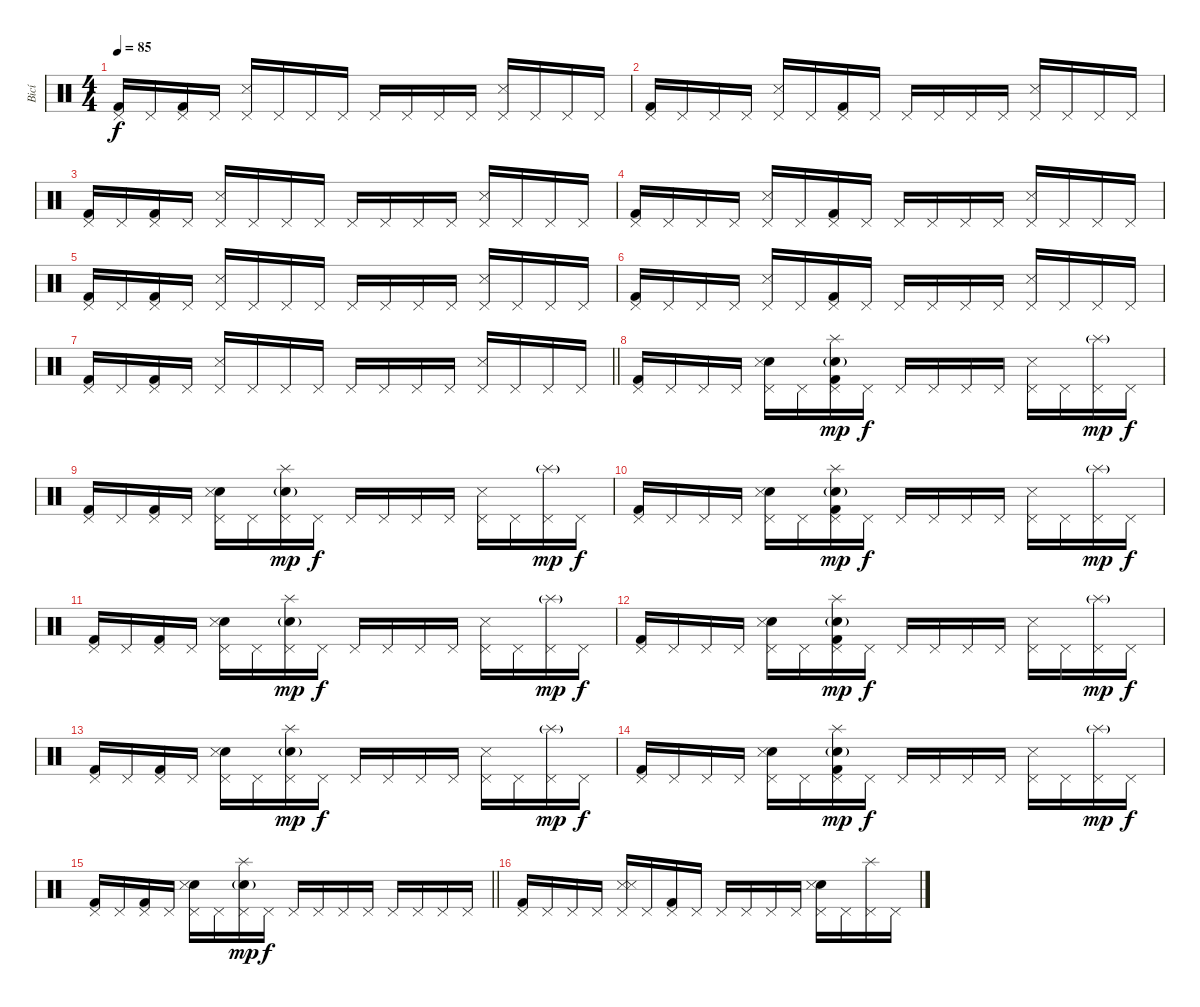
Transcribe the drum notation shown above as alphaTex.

\track ("Bicí" "Bicí") {instrument percussion}
\staff {score}
\articulation defaults
\ts (4 4)
\tempo 85
\clef neutral
\ks c
("Pedal Hi-Hat (hit)" "Kick (hit) 2").16{dy f} "Pedal Hi-Hat (hit)".16 ("Pedal Hi-Hat (hit)" "Kick (hit) 2").16 "Pedal Hi-Hat (hit)".16 ("Pedal Hi-Hat (hit)" "Snare (side stick) 3").16 "Pedal Hi-Hat (hit)".16 "Pedal Hi-Hat (hit)".16 "Pedal Hi-Hat (hit)".16 "Pedal Hi-Hat (hit)".16 "Pedal Hi-Hat (hit)".16 "Pedal Hi-Hat (hit)".16 "Pedal Hi-Hat (hit)".16 ("Pedal Hi-Hat (hit)" "Snare (side stick) 3").16 "Pedal Hi-Hat (hit)".16 "Pedal Hi-Hat (hit)".16 "Pedal Hi-Hat (hit)".16 |
("Pedal Hi-Hat (hit)" "Kick (hit) 2").16 "Pedal Hi-Hat (hit)".16 "Pedal Hi-Hat (hit)".16 "Pedal Hi-Hat (hit)".16 ("Pedal Hi-Hat (hit)" "Snare (side stick) 3").16 "Pedal Hi-Hat (hit)".16 ("Pedal Hi-Hat (hit)" "Kick (hit) 2").16 "Pedal Hi-Hat (hit)".16 "Pedal Hi-Hat (hit)".16 "Pedal Hi-Hat (hit)".16 "Pedal Hi-Hat (hit)".16 "Pedal Hi-Hat (hit)".16 ("Pedal Hi-Hat (hit)" "Snare (side stick) 3").16 "Pedal Hi-Hat (hit)".16 "Pedal Hi-Hat (hit)".16 "Pedal Hi-Hat (hit)".16 |
("Pedal Hi-Hat (hit)" "Kick (hit) 2").16 "Pedal Hi-Hat (hit)".16 ("Pedal Hi-Hat (hit)" "Kick (hit) 2").16 "Pedal Hi-Hat (hit)".16 ("Pedal Hi-Hat (hit)" "Snare (side stick) 3").16 "Pedal Hi-Hat (hit)".16 "Pedal Hi-Hat (hit)".16 "Pedal Hi-Hat (hit)".16 "Pedal Hi-Hat (hit)".16 "Pedal Hi-Hat (hit)".16 "Pedal Hi-Hat (hit)".16 "Pedal Hi-Hat (hit)".16 ("Pedal Hi-Hat (hit)" "Snare (side stick) 3").16 "Pedal Hi-Hat (hit)".16 "Pedal Hi-Hat (hit)".16 "Pedal Hi-Hat (hit)".16 |
("Pedal Hi-Hat (hit)" "Kick (hit) 2").16 "Pedal Hi-Hat (hit)".16 "Pedal Hi-Hat (hit)".16 "Pedal Hi-Hat (hit)".16 ("Pedal Hi-Hat (hit)" "Snare (side stick) 3").16 "Pedal Hi-Hat (hit)".16 ("Pedal Hi-Hat (hit)" "Kick (hit) 2").16 "Pedal Hi-Hat (hit)".16 "Pedal Hi-Hat (hit)".16 "Pedal Hi-Hat (hit)".16 "Pedal Hi-Hat (hit)".16 "Pedal Hi-Hat (hit)".16 ("Pedal Hi-Hat (hit)" "Snare (side stick) 3").16 "Pedal Hi-Hat (hit)".16 "Pedal Hi-Hat (hit)".16 "Pedal Hi-Hat (hit)".16 |
("Pedal Hi-Hat (hit)" "Kick (hit) 2").16 "Pedal Hi-Hat (hit)".16 ("Pedal Hi-Hat (hit)" "Kick (hit) 2").16 "Pedal Hi-Hat (hit)".16 ("Pedal Hi-Hat (hit)" "Snare (side stick) 3").16 "Pedal Hi-Hat (hit)".16 "Pedal Hi-Hat (hit)".16 "Pedal Hi-Hat (hit)".16 "Pedal Hi-Hat (hit)".16 "Pedal Hi-Hat (hit)".16 "Pedal Hi-Hat (hit)".16 "Pedal Hi-Hat (hit)".16 ("Pedal Hi-Hat (hit)" "Snare (side stick) 3").16 "Pedal Hi-Hat (hit)".16 "Pedal Hi-Hat (hit)".16 "Pedal Hi-Hat (hit)".16 |
("Pedal Hi-Hat (hit)" "Kick (hit) 2").16 "Pedal Hi-Hat (hit)".16 "Pedal Hi-Hat (hit)".16 "Pedal Hi-Hat (hit)".16 ("Pedal Hi-Hat (hit)" "Snare (side stick) 3").16 "Pedal Hi-Hat (hit)".16 ("Pedal Hi-Hat (hit)" "Kick (hit) 2").16 "Pedal Hi-Hat (hit)".16 "Pedal Hi-Hat (hit)".16 "Pedal Hi-Hat (hit)".16 "Pedal Hi-Hat (hit)".16 "Pedal Hi-Hat (hit)".16 ("Pedal Hi-Hat (hit)" "Snare (side stick) 3").16 "Pedal Hi-Hat (hit)".16 "Pedal Hi-Hat (hit)".16 "Pedal Hi-Hat (hit)".16 |
\barLineRight lightlight
("Pedal Hi-Hat (hit)" "Kick (hit) 2").16 "Pedal Hi-Hat (hit)".16 ("Pedal Hi-Hat (hit)" "Kick (hit) 2").16 "Pedal Hi-Hat (hit)".16 ("Pedal Hi-Hat (hit)" "Snare (side stick) 3").16 "Pedal Hi-Hat (hit)".16 "Pedal Hi-Hat (hit)".16 "Pedal Hi-Hat (hit)".16 "Pedal Hi-Hat (hit)".16 "Pedal Hi-Hat (hit)".16 "Pedal Hi-Hat (hit)".16 "Pedal Hi-Hat (hit)".16 ("Pedal Hi-Hat (hit)" "Snare (side stick) 3").16 "Pedal Hi-Hat (hit)".16 "Pedal Hi-Hat (hit)".16 "Pedal Hi-Hat (hit)".16 |
("Pedal Hi-Hat (hit)" "Kick (hit) 2").16 "Pedal Hi-Hat (hit)".16 "Pedal Hi-Hat (hit)".16 "Pedal Hi-Hat (hit)".16 ("Pedal Hi-Hat (hit)" "Hand Clap (hit)" "Snare (side stick) 3").16 "Pedal Hi-Hat (hit)".16 ("Pedal Hi-Hat (hit)" "Splash (hit)" "Hand Clap (hit)"{g} "Kick (hit) 2").16{dy mp} "Pedal Hi-Hat (hit)".16{dy f} "Pedal Hi-Hat (hit)".16 "Pedal Hi-Hat (hit)".16 "Pedal Hi-Hat (hit)".16 "Pedal Hi-Hat (hit)".16 ("Pedal Hi-Hat (hit)" "Snare (side stick) 3").16 "Pedal Hi-Hat (hit)".16 ("Pedal Hi-Hat (hit)" "Splash (hit)"{g}).16{dy mp} "Pedal Hi-Hat (hit)".16{dy f} |
("Pedal Hi-Hat (hit)" "Kick (hit) 2").16 "Pedal Hi-Hat (hit)".16 ("Pedal Hi-Hat (hit)" "Kick (hit) 2").16 "Pedal Hi-Hat (hit)".16 ("Pedal Hi-Hat (hit)" "Hand Clap (hit)" "Snare (side stick) 3").16 "Pedal Hi-Hat (hit)".16 ("Pedal Hi-Hat (hit)" "Splash (hit)" "Hand Clap (hit)"{g}).16{dy mp} "Pedal Hi-Hat (hit)".16{dy f} "Pedal Hi-Hat (hit)".16 "Pedal Hi-Hat (hit)".16 "Pedal Hi-Hat (hit)".16 "Pedal Hi-Hat (hit)".16 ("Pedal Hi-Hat (hit)" "Snare (side stick) 3").16 "Pedal Hi-Hat (hit)".16 ("Pedal Hi-Hat (hit)" "Splash (hit)"{g}).16{dy mp} "Pedal Hi-Hat (hit)".16{dy f} |
("Pedal Hi-Hat (hit)" "Kick (hit) 2").16 "Pedal Hi-Hat (hit)".16 "Pedal Hi-Hat (hit)".16 "Pedal Hi-Hat (hit)".16 ("Pedal Hi-Hat (hit)" "Hand Clap (hit)" "Snare (side stick) 3").16 "Pedal Hi-Hat (hit)".16 ("Pedal Hi-Hat (hit)" "Splash (hit)" "Hand Clap (hit)"{g} "Kick (hit) 2").16{dy mp} "Pedal Hi-Hat (hit)".16{dy f} "Pedal Hi-Hat (hit)".16 "Pedal Hi-Hat (hit)".16 "Pedal Hi-Hat (hit)".16 "Pedal Hi-Hat (hit)".16 ("Pedal Hi-Hat (hit)" "Snare (side stick) 3").16 "Pedal Hi-Hat (hit)".16 ("Pedal Hi-Hat (hit)" "Splash (hit)"{g}).16{dy mp} "Pedal Hi-Hat (hit)".16{dy f} |
("Pedal Hi-Hat (hit)" "Kick (hit) 2").16 "Pedal Hi-Hat (hit)".16 ("Pedal Hi-Hat (hit)" "Kick (hit) 2").16 "Pedal Hi-Hat (hit)".16 ("Pedal Hi-Hat (hit)" "Hand Clap (hit)" "Snare (side stick) 3").16 "Pedal Hi-Hat (hit)".16 ("Pedal Hi-Hat (hit)" "Splash (hit)" "Hand Clap (hit)"{g}).16{dy mp} "Pedal Hi-Hat (hit)".16{dy f} "Pedal Hi-Hat (hit)".16 "Pedal Hi-Hat (hit)".16 "Pedal Hi-Hat (hit)".16 "Pedal Hi-Hat (hit)".16 ("Pedal Hi-Hat (hit)" "Snare (side stick) 3").16 "Pedal Hi-Hat (hit)".16 ("Pedal Hi-Hat (hit)" "Splash (hit)"{g}).16{dy mp} "Pedal Hi-Hat (hit)".16{dy f} |
("Pedal Hi-Hat (hit)" "Kick (hit) 2").16 "Pedal Hi-Hat (hit)".16 "Pedal Hi-Hat (hit)".16 "Pedal Hi-Hat (hit)".16 ("Pedal Hi-Hat (hit)" "Hand Clap (hit)" "Snare (side stick) 3").16 "Pedal Hi-Hat (hit)".16 ("Pedal Hi-Hat (hit)" "Splash (hit)" "Hand Clap (hit)"{g} "Kick (hit) 2").16{dy mp} "Pedal Hi-Hat (hit)".16{dy f} "Pedal Hi-Hat (hit)".16 "Pedal Hi-Hat (hit)".16 "Pedal Hi-Hat (hit)".16 "Pedal Hi-Hat (hit)".16 ("Pedal Hi-Hat (hit)" "Snare (side stick) 3").16 "Pedal Hi-Hat (hit)".16 ("Pedal Hi-Hat (hit)" "Splash (hit)"{g}).16{dy mp} "Pedal Hi-Hat (hit)".16{dy f} |
("Pedal Hi-Hat (hit)" "Kick (hit) 2").16 "Pedal Hi-Hat (hit)".16 ("Pedal Hi-Hat (hit)" "Kick (hit) 2").16 "Pedal Hi-Hat (hit)".16 ("Pedal Hi-Hat (hit)" "Hand Clap (hit)" "Snare (side stick) 3").16 "Pedal Hi-Hat (hit)".16 ("Pedal Hi-Hat (hit)" "Splash (hit)" "Hand Clap (hit)"{g}).16{dy mp} "Pedal Hi-Hat (hit)".16{dy f} "Pedal Hi-Hat (hit)".16 "Pedal Hi-Hat (hit)".16 "Pedal Hi-Hat (hit)".16 "Pedal Hi-Hat (hit)".16 ("Pedal Hi-Hat (hit)" "Snare (side stick) 3").16 "Pedal Hi-Hat (hit)".16 ("Pedal Hi-Hat (hit)" "Splash (hit)"{g}).16{dy mp} "Pedal Hi-Hat (hit)".16{dy f} |
("Pedal Hi-Hat (hit)" "Kick (hit) 2").16 "Pedal Hi-Hat (hit)".16 "Pedal Hi-Hat (hit)".16 "Pedal Hi-Hat (hit)".16 ("Pedal Hi-Hat (hit)" "Hand Clap (hit)" "Snare (side stick) 3").16 "Pedal Hi-Hat (hit)".16 ("Pedal Hi-Hat (hit)" "Splash (hit)" "Hand Clap (hit)"{g} "Kick (hit) 2").16{dy mp} "Pedal Hi-Hat (hit)".16{dy f} "Pedal Hi-Hat (hit)".16 "Pedal Hi-Hat (hit)".16 "Pedal Hi-Hat (hit)".16 "Pedal Hi-Hat (hit)".16 ("Pedal Hi-Hat (hit)" "Snare (side stick) 3").16 "Pedal Hi-Hat (hit)".16 ("Pedal Hi-Hat (hit)" "Splash (hit)"{g}).16{dy mp} "Pedal Hi-Hat (hit)".16{dy f} |
\barLineRight lightlight
("Pedal Hi-Hat (hit)" "Kick (hit) 2").16 "Pedal Hi-Hat (hit)".16 ("Pedal Hi-Hat (hit)" "Kick (hit) 2").16 "Pedal Hi-Hat (hit)".16 ("Pedal Hi-Hat (hit)" "Hand Clap (hit)" "Snare (side stick) 3").16 "Pedal Hi-Hat (hit)".16 ("Pedal Hi-Hat (hit)" "Splash (hit)" "Hand Clap (hit)"{g}).16{dy mp} "Pedal Hi-Hat (hit)".16{dy f} "Pedal Hi-Hat (hit)".16 "Pedal Hi-Hat (hit)".16 "Pedal Hi-Hat (hit)".16 "Pedal Hi-Hat (hit)".16 "Pedal Hi-Hat (hit)".16 "Pedal Hi-Hat (hit)".16 "Pedal Hi-Hat (hit)".16 "Pedal Hi-Hat (hit)".16 |
("Pedal Hi-Hat (hit)" "Kick (hit) 2").16 "Pedal Hi-Hat (hit)".16 "Pedal Hi-Hat (hit)".16 "Pedal Hi-Hat (hit)".16 ("Pedal Hi-Hat (hit)" "Snare (side stick) 3" "Snare (side stick) 3").16 "Pedal Hi-Hat (hit)".16 ("Pedal Hi-Hat (hit)" "Kick (hit) 2").16 "Pedal Hi-Hat (hit)".16 "Pedal Hi-Hat (hit)".16 "Pedal Hi-Hat (hit)".16 "Pedal Hi-Hat (hit)".16 "Pedal Hi-Hat (hit)".16 ("Pedal Hi-Hat (hit)" "Hand Clap (hit)" "Snare (side stick) 3").16 "Pedal Hi-Hat (hit)".16 ("Pedal Hi-Hat (hit)" "Splash (hit)").16 "Pedal Hi-Hat (hit)".16
